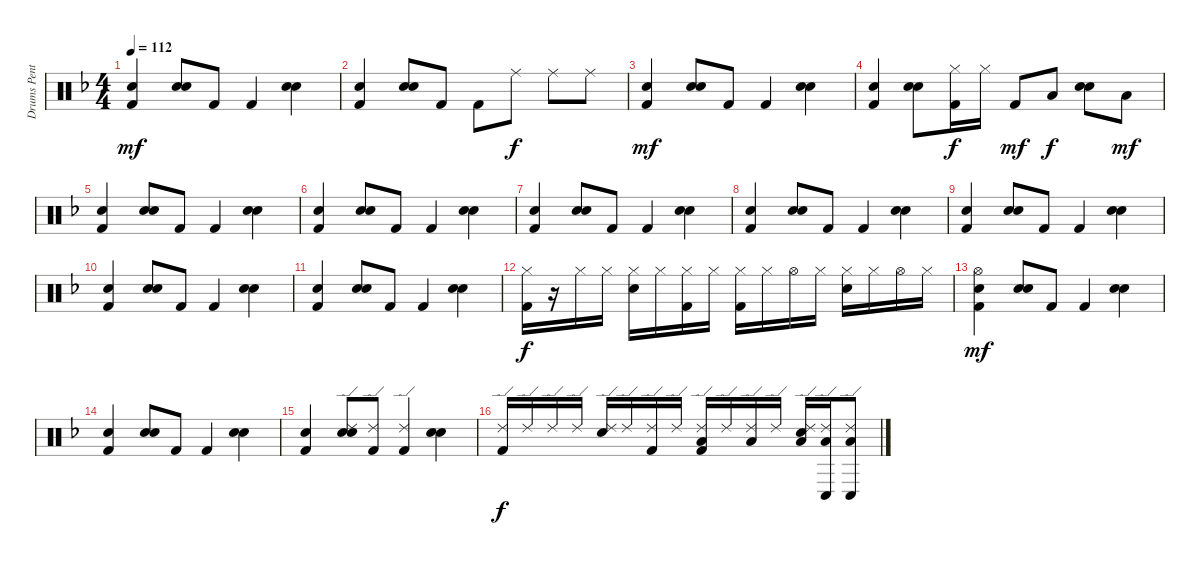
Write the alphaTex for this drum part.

\track ("Drums Pentti Glan" "Drums Pent") {mute instrument percussion}
\staff {score}
\articulation defaults
\ts (4 4)
\tempo 112
\clef neutral
\ks f
("Hand Clap (hit)" "Kick (hit) 2").4{dy mf} ("Electric Snare (hit)" "Snare (hit) 2").8 "Kick (hit) 2".8 "Kick (hit) 2".4 ("Electric Snare (hit)" "Snare (hit) 2").4 |
("Hand Clap (hit)" "Kick (hit) 2").4 ("Electric Snare (hit)" "Snare (hit) 2").8 "Kick (hit) 2".8 "Kick (hit) 2".8 "Ride (middle)".8{dy f} "Ride (middle)".8 "Ride (middle)".8 |
("Hand Clap (hit)" "Kick (hit) 2").4{dy mf} ("Electric Snare (hit)" "Snare (hit) 2").8 "Kick (hit) 2".8 "Kick (hit) 2".4 ("Electric Snare (hit)" "Snare (hit) 2").4 |
("Hand Clap (hit)" "Kick (hit) 2").4 ("Electric Snare (hit)" "Snare (hit) 2").8 ("Hi-Hat (closed)" "Kick (hit) 2").16{dy f} "Hi-Hat (closed)".16 "Kick (hit) 2".8{dy mf} "Low Tom (hit)".8{dy f} ("Electric Snare (hit)" "Snare (hit) 2").8 "Low Tom (hit)".8{dy mf} |
("Hand Clap (hit)" "Kick (hit) 2").4 ("Electric Snare (hit)" "Snare (hit) 2").8 "Kick (hit) 2".8 "Kick (hit) 2".4 ("Electric Snare (hit)" "Snare (hit) 2").4 |
("Hand Clap (hit)" "Kick (hit) 2").4 ("Electric Snare (hit)" "Snare (hit) 2").8 "Kick (hit) 2".8 "Kick (hit) 2".4 ("Electric Snare (hit)" "Snare (hit) 2").4 |
("Hand Clap (hit)" "Kick (hit) 2").4 ("Electric Snare (hit)" "Snare (hit) 2").8 "Kick (hit) 2".8 "Kick (hit) 2".4 ("Electric Snare (hit)" "Snare (hit) 2").4 |
("Hand Clap (hit)" "Kick (hit) 2").4 ("Electric Snare (hit)" "Snare (hit) 2").8 "Kick (hit) 2".8 "Kick (hit) 2".4 ("Electric Snare (hit)" "Snare (hit) 2").4 |
("Hand Clap (hit)" "Kick (hit) 2").4 ("Electric Snare (hit)" "Snare (hit) 2").8 "Kick (hit) 2".8 "Kick (hit) 2".4 ("Electric Snare (hit)" "Snare (hit) 2").4 |
("Hand Clap (hit)" "Kick (hit) 2").4 ("Electric Snare (hit)" "Snare (hit) 2").8 "Kick (hit) 2".8 "Kick (hit) 2".4 ("Electric Snare (hit)" "Snare (hit) 2").4 |
("Hand Clap (hit)" "Kick (hit) 2").4 ("Electric Snare (hit)" "Snare (hit) 2").8 "Kick (hit) 2".8 "Kick (hit) 2".4 ("Electric Snare (hit)" "Snare (hit) 2").4 |
("Hi-Hat (closed)" "Kick (hit) 2").16{dy f} r.16 "Hi-Hat (closed)".16 "Hi-Hat (closed)".16 ("Hi-Hat (closed)" "Electric Snare (hit)").16 "Hi-Hat (closed)".16 ("Hi-Hat (closed)" "Kick (hit) 2").16 "Hi-Hat (closed)".16 ("Hi-Hat (closed)" "Kick (hit) 2").16 "Hi-Hat (closed)".16 "Hi-Hat (open)".16 "Hi-Hat (closed)".16 ("Hi-Hat (closed)" "Electric Snare (hit)").16 "Hi-Hat (closed)".16 "Hi-Hat (open)".16 "Hi-Hat (closed)".16 |
("Hi-Hat (open)" "Hand Clap (hit)" "Kick (hit) 2").4{dy mf} ("Electric Snare (hit)" "Snare (hit) 2").8 "Kick (hit) 2".8 "Kick (hit) 2".4 ("Electric Snare (hit)" "Snare (hit) 2").4 |
("Hand Clap (hit)" "Kick (hit) 2").4 ("Electric Snare (hit)" "Snare (hit) 2").8 "Kick (hit) 2".8 "Kick (hit) 2".4 ("Electric Snare (hit)" "Snare (hit) 2").4 |
("Hand Clap (hit)" "Kick (hit) 2").4 ("Ride (edge) 2" "Electric Snare (hit)" "Snare (hit) 2").8 ("Ride (edge) 2" "Kick (hit) 2").8 ("Ride (edge) 2" "Kick (hit) 2").4 ("Electric Snare (hit)" "Snare (hit) 2").4 |
("Ride (edge) 2" "Kick (hit) 2").16{dy f} "Ride (edge) 2".16 "Ride (edge) 2".16 "Ride (edge) 2".16 ("Ride (edge) 2" "Electric Snare (hit)").16 "Ride (edge) 2".16 ("Ride (edge) 2" "Kick (hit) 2").16 "Ride (edge) 2".16 ("Ride (edge) 2" "Low Tom (hit)" "Kick (hit) 2").16 "Ride (edge) 2".16 ("Ride (edge) 2" "Low Tom (hit)").16 "Ride (edge) 2".16 ("Ride (edge) 2" "Electric Snare (hit)" "Low Tom (hit)").16 ("Ride (edge) 2" "Conga low (hit)" "Low Tom (hit)").16 ("Ride (edge) 2" "Conga low (hit)" "Low Tom (hit)").8
